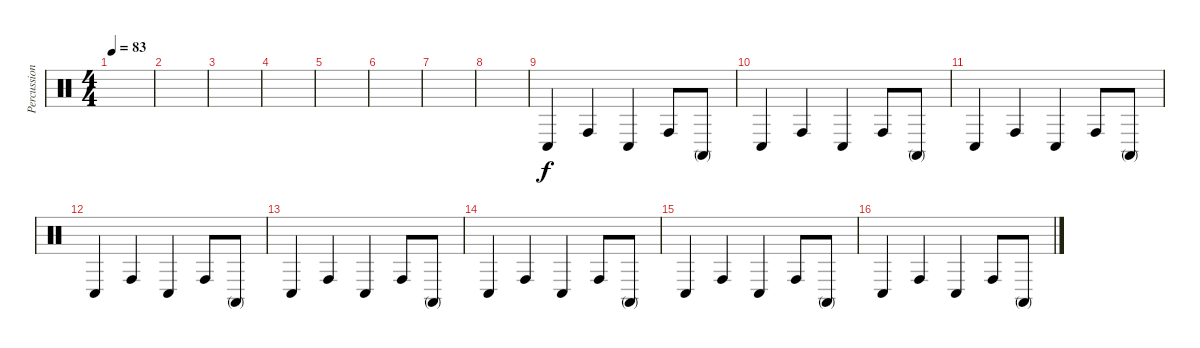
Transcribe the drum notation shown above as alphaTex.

\track ("Percussion 2" "Percussion") {instrument percussion}
\staff {score}
\articulation defaults
\ts (4 4)
\tempo 83
\clef neutral
\ks c
|
|
|
|
|
|
|
|
"Conga low (hit)".4 "Conga high (hit)".4 "Conga low (hit)".4 "Conga high (hit)".8 "Conga high (mute)".8 |
"Conga low (hit)".4 "Conga high (hit)".4 "Conga low (hit)".4 "Conga high (hit)".8 "Conga high (mute)".8 |
"Conga low (hit)".4 "Conga high (hit)".4 "Conga low (hit)".4 "Conga high (hit)".8 "Conga high (mute)".8 |
"Conga low (hit)".4 "Conga high (hit)".4 "Conga low (hit)".4 "Conga high (hit)".8 "Conga high (mute)".8 |
"Conga low (hit)".4 "Conga high (hit)".4 "Conga low (hit)".4 "Conga high (hit)".8 "Conga high (mute)".8 |
"Conga low (hit)".4 "Conga high (hit)".4 "Conga low (hit)".4 "Conga high (hit)".8 "Conga high (mute)".8 |
"Conga low (hit)".4 "Conga high (hit)".4 "Conga low (hit)".4 "Conga high (hit)".8 "Conga high (mute)".8 |
"Conga low (hit)".4 "Conga high (hit)".4 "Conga low (hit)".4 "Conga high (hit)".8 "Conga high (mute)".8
